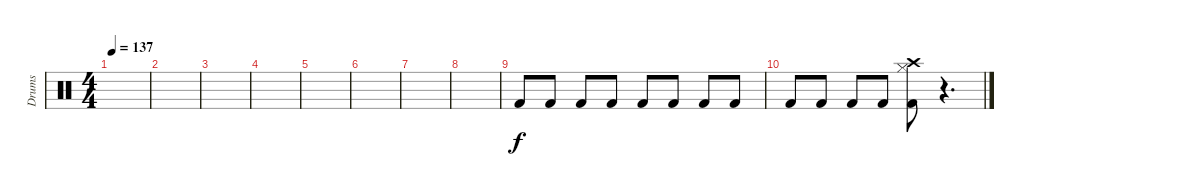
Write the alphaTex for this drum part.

\track ("Drums" "Drums") {instrument percussion}
\staff {score}
\articulation defaults
\ts (4 4)
\tempo 137
\clef neutral
\ks c
|
|
|
|
|
|
|
|
"Kick (hit) 2".8 "Kick (hit) 2".8 "Kick (hit) 2".8 "Kick (hit) 2".8 "Kick (hit) 2".8 "Kick (hit) 2".8 "Kick (hit) 2".8 "Kick (hit) 2".8 |
"Kick (hit) 2".8 "Kick (hit) 2".8 "Kick (hit) 2".8 "Kick (hit) 2".8 ("Kick (hit) 2" "Hi-Hat (closed)" "Crash high (hit)").8 r.4{d}
